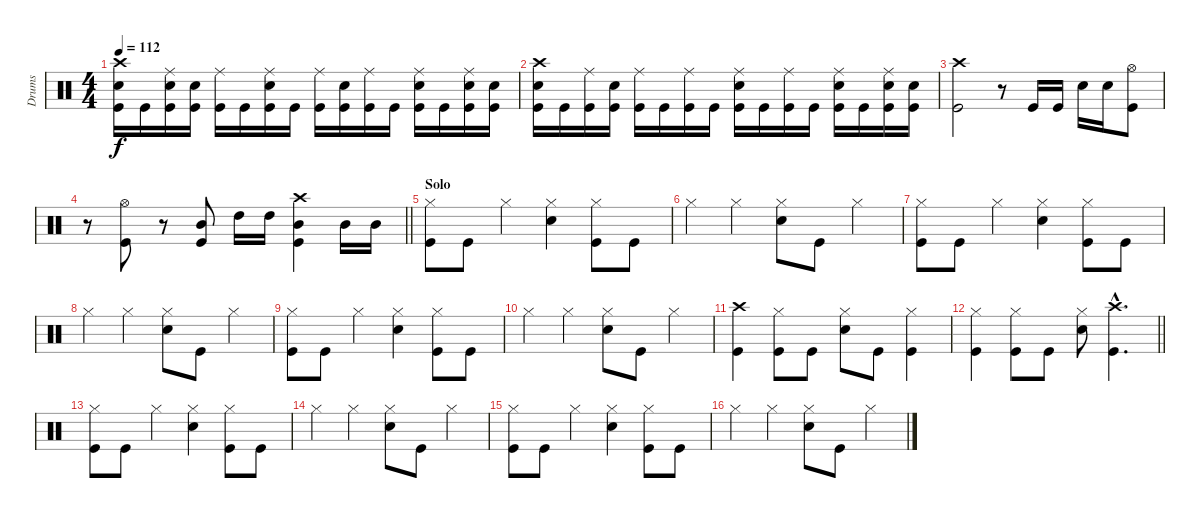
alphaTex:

\track ("Drums" "Drums") {instrument percussion}
\staff {score}
\articulation defaults
\ts (4 4)
\tempo 112
\clef neutral
\ks c
("Crash high (hit)" "Snare (hit) 2" "Kick (hit)").16{dy f} "Kick (hit)".16 ("Ride (middle)" "Snare (hit) 2" "Kick (hit)").16 ("Snare (hit) 2" "Kick (hit)").16 ("Ride (middle)" "Kick (hit)").16 "Kick (hit)".16 ("Ride (middle)" "Snare (hit) 2" "Kick (hit)").16 "Kick (hit)".16 ("Ride (middle)" "Kick (hit)").16 ("Snare (hit) 2" "Kick (hit)").16 ("Ride (middle)" "Kick (hit)").16 "Kick (hit)".16 ("Ride (middle)" "Snare (hit) 2" "Kick (hit)").16 "Kick (hit)".16 ("Ride (middle)" "Snare (hit) 2" "Kick (hit)").16 ("Snare (hit) 2" "Kick (hit)").16 |
("Crash high (hit)" "Snare (hit) 2" "Kick (hit)").16 "Kick (hit)".16 ("Ride (middle)" "Kick (hit)").16 ("Snare (hit) 2" "Kick (hit)").16 ("Ride (middle)" "Kick (hit)").16 "Kick (hit)".16 ("Ride (middle)" "Kick (hit)").16 "Kick (hit)".16 ("Ride (middle)" "Snare (hit) 2" "Kick (hit)").16 "Kick (hit)".16 ("Ride (middle)" "Kick (hit)").16 "Kick (hit)".16 ("Ride (middle)" "Snare (hit) 2" "Kick (hit)").16 "Kick (hit)".16 ("Ride (middle)" "Snare (hit) 2" "Kick (hit)").16 ("Snare (hit) 2" "Kick (hit)").16 |
("Crash high (hit)" "Kick (hit)").2 r.8 "Kick (hit)".16 "Kick (hit)".16 "Snare (hit) 2".16 "Snare (hit) 2".16 ("Kick (hit)" "Hi-Hat (open)").8 |
\barLineRight lightlight
r.8 ("Hi-Hat (open)" "Kick (hit)").8 r.8 ("Mid Tom (hit)" "Kick (hit)").8 "High Tom (hit)".16 "High Tom (hit)".16 ("Crash high (hit)" "Mid Tom (hit)" "Kick (hit)").4 "Mid Tom (hit)".16 "Mid Tom (hit)".16 |
\section ("" "Solo")
("Hi-Hat (closed)" "Kick (hit)").8 "Kick (hit)".8 "Hi-Hat (closed)".4 ("Hi-Hat (closed)" "Snare (hit) 2").4 ("Kick (hit)" "Hi-Hat (closed)").8 "Kick (hit)".8 |
"Hi-Hat (closed)".4 "Hi-Hat (closed)".4 ("Hi-Hat (closed)" "Snare (hit) 2").8 "Kick (hit)".8 "Hi-Hat (closed)".4 |
("Hi-Hat (closed)" "Kick (hit)").8 "Kick (hit)".8 "Hi-Hat (closed)".4 ("Hi-Hat (closed)" "Snare (hit) 2").4 ("Kick (hit)" "Hi-Hat (closed)").8 "Kick (hit)".8 |
"Hi-Hat (closed)".4 "Hi-Hat (closed)".4 ("Hi-Hat (closed)" "Snare (hit) 2").8 "Kick (hit)".8 "Hi-Hat (closed)".4 |
("Hi-Hat (closed)" "Kick (hit)").8 "Kick (hit)".8 "Hi-Hat (closed)".4 ("Hi-Hat (closed)" "Snare (hit) 2").4 ("Kick (hit)" "Hi-Hat (closed)").8 "Kick (hit)".8 |
"Hi-Hat (closed)".4 "Hi-Hat (closed)".4 ("Hi-Hat (closed)" "Snare (hit) 2").8 "Kick (hit)".8 "Hi-Hat (closed)".4 |
("Crash high (hit)" "Kick (hit)").4 ("Hi-Hat (closed)" "Kick (hit)").8 "Kick (hit)".8 ("Snare (hit) 2" "Hi-Hat (closed)").8 "Kick (hit)".8 ("Kick (hit)" "Hi-Hat (closed)").4 |
\barLineRight lightlight
("Hi-Hat (closed)" "Kick (hit)").4 ("Hi-Hat (closed)" "Kick (hit)").8 "Kick (hit)".8 ("Snare (hit) 2" "Hi-Hat (closed)").8 ("Kick (hit)"{hac} "Crash high (hit)"{hac}).4{d} |
("Hi-Hat (closed)" "Kick (hit)").8 "Kick (hit)".8 "Hi-Hat (closed)".4 ("Hi-Hat (closed)" "Snare (hit) 2").4 ("Kick (hit)" "Hi-Hat (closed)").8 "Kick (hit)".8 |
"Hi-Hat (closed)".4 "Hi-Hat (closed)".4 ("Hi-Hat (closed)" "Snare (hit) 2").8 "Kick (hit)".8 "Hi-Hat (closed)".4 |
("Hi-Hat (closed)" "Kick (hit)").8 "Kick (hit)".8 "Hi-Hat (closed)".4 ("Hi-Hat (closed)" "Snare (hit) 2").4 ("Kick (hit)" "Hi-Hat (closed)").8 "Kick (hit)".8 |
"Hi-Hat (closed)".4 "Hi-Hat (closed)".4 ("Hi-Hat (closed)" "Snare (hit) 2").8 "Kick (hit)".8 "Hi-Hat (closed)".4
